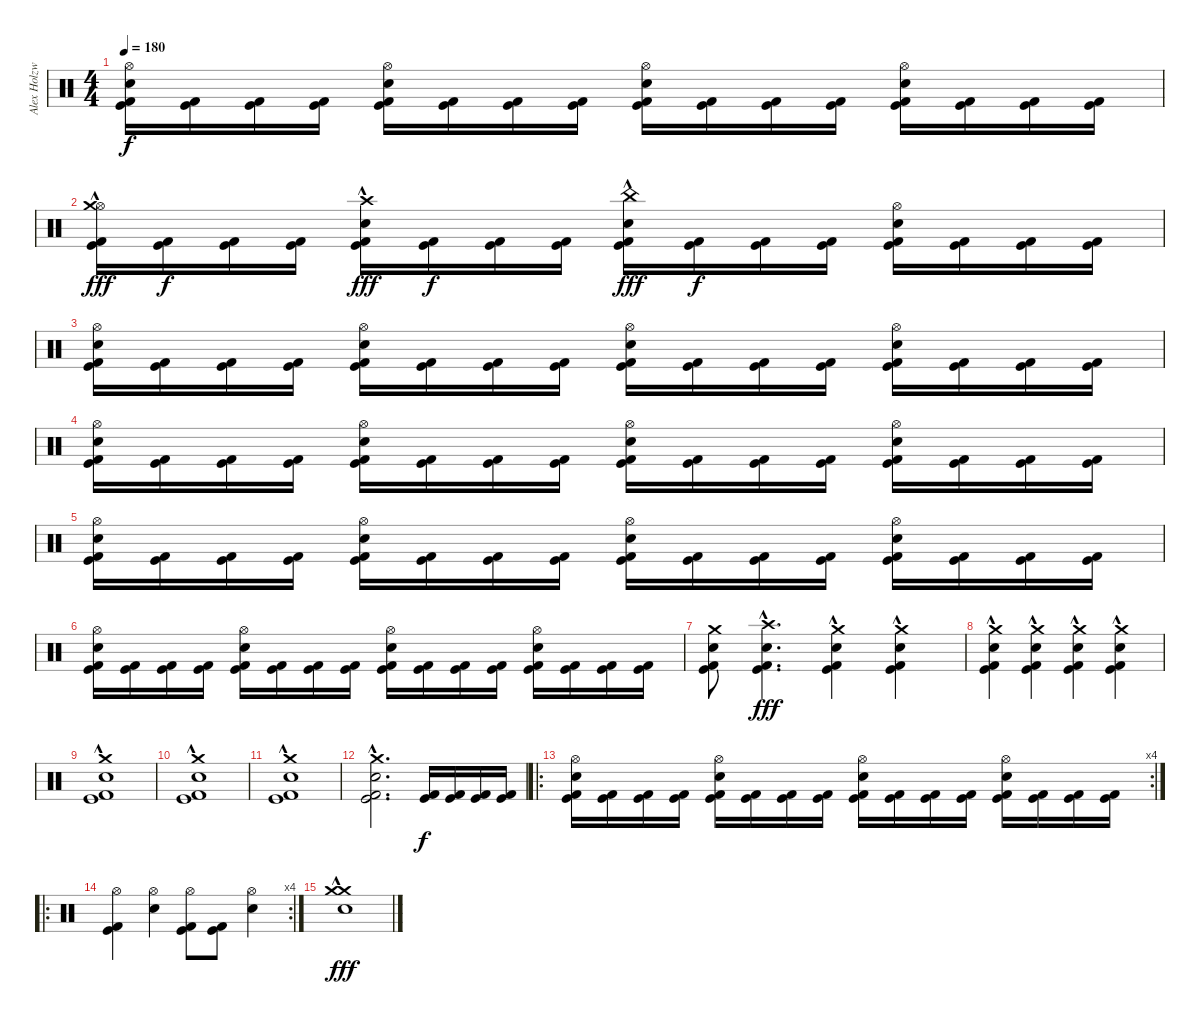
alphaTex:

\track ("Alex Holzwarth" "Alex Holzw") {instrument percussion}
\staff {score}
\articulation defaults
\ts (4 4)
\tempo 180
\clef neutral
\ks c
("Kick (hit) 2" "Kick (hit)" "Snare (hit) 2" "Hi-Hat (open)").16{dy f} ("Kick (hit) 2" "Kick (hit)").16 ("Kick (hit) 2" "Kick (hit)").16 ("Kick (hit) 2" "Kick (hit)").16 ("Kick (hit) 2" "Kick (hit)" "Hi-Hat (open)" "Snare (hit) 2").16 ("Kick (hit) 2" "Kick (hit)").16 ("Kick (hit) 2" "Kick (hit)").16 ("Kick (hit) 2" "Kick (hit)").16 ("Kick (hit) 2" "Kick (hit)" "Hi-Hat (open)" "Snare (hit) 2").16 ("Kick (hit) 2" "Kick (hit)").16 ("Kick (hit) 2" "Kick (hit)").16 ("Kick (hit) 2" "Kick (hit)").16 ("Kick (hit) 2" "Kick (hit)" "Hi-Hat (open)" "Snare (hit) 2").16 ("Kick (hit) 2" "Kick (hit)").16 ("Kick (hit) 2" "Kick (hit)").16 ("Kick (hit) 2" "Kick (hit)").16 |
("Kick (hit) 2" "Kick (hit)" "Hi-Hat (open)" "Crash medium (hit)"{hac}).16{dy fff} ("Kick (hit) 2" "Kick (hit)").16{dy f} ("Kick (hit) 2" "Kick (hit)").16 ("Kick (hit) 2" "Kick (hit)").16 ("Kick (hit) 2" "Kick (hit)" "Snare (hit) 2" "Crash high (hit)"{hac}).16{dy fff} ("Kick (hit) 2" "Kick (hit)").16{dy f} ("Kick (hit) 2" "Kick (hit)").16 ("Kick (hit) 2" "Kick (hit)").16 ("Kick (hit) 2" "Kick (hit)" "Snare (hit) 2" "China (hit)"{hac}).16{dy fff} ("Kick (hit) 2" "Kick (hit)").16{dy f} ("Kick (hit) 2" "Kick (hit)").16 ("Kick (hit) 2" "Kick (hit)").16 ("Kick (hit) 2" "Kick (hit)" "Hi-Hat (open)" "Snare (hit) 2").16 ("Kick (hit) 2" "Kick (hit)").16 ("Kick (hit) 2" "Kick (hit)").16 ("Kick (hit) 2" "Kick (hit)").16 |
("Kick (hit) 2" "Kick (hit)" "Snare (hit) 2" "Hi-Hat (open)").16 ("Kick (hit) 2" "Kick (hit)").16 ("Kick (hit) 2" "Kick (hit)").16 ("Kick (hit) 2" "Kick (hit)").16 ("Kick (hit) 2" "Kick (hit)" "Hi-Hat (open)" "Snare (hit) 2").16 ("Kick (hit) 2" "Kick (hit)").16 ("Kick (hit) 2" "Kick (hit)").16 ("Kick (hit) 2" "Kick (hit)").16 ("Kick (hit) 2" "Kick (hit)" "Hi-Hat (open)" "Snare (hit) 2").16 ("Kick (hit) 2" "Kick (hit)").16 ("Kick (hit) 2" "Kick (hit)").16 ("Kick (hit) 2" "Kick (hit)").16 ("Kick (hit) 2" "Kick (hit)" "Hi-Hat (open)" "Snare (hit) 2").16 ("Kick (hit) 2" "Kick (hit)").16 ("Kick (hit) 2" "Kick (hit)").16 ("Kick (hit) 2" "Kick (hit)").16 |
("Kick (hit) 2" "Kick (hit)" "Snare (hit) 2" "Hi-Hat (open)").16 ("Kick (hit) 2" "Kick (hit)").16 ("Kick (hit) 2" "Kick (hit)").16 ("Kick (hit) 2" "Kick (hit)").16 ("Kick (hit) 2" "Kick (hit)" "Hi-Hat (open)" "Snare (hit) 2").16 ("Kick (hit) 2" "Kick (hit)").16 ("Kick (hit) 2" "Kick (hit)").16 ("Kick (hit) 2" "Kick (hit)").16 ("Kick (hit) 2" "Kick (hit)" "Hi-Hat (open)" "Snare (hit) 2").16 ("Kick (hit) 2" "Kick (hit)").16 ("Kick (hit) 2" "Kick (hit)").16 ("Kick (hit) 2" "Kick (hit)").16 ("Kick (hit) 2" "Kick (hit)" "Hi-Hat (open)" "Snare (hit) 2").16 ("Kick (hit) 2" "Kick (hit)").16 ("Kick (hit) 2" "Kick (hit)").16 ("Kick (hit) 2" "Kick (hit)").16 |
("Kick (hit) 2" "Kick (hit)" "Snare (hit) 2" "Hi-Hat (open)").16 ("Kick (hit) 2" "Kick (hit)").16 ("Kick (hit) 2" "Kick (hit)").16 ("Kick (hit) 2" "Kick (hit)").16 ("Kick (hit) 2" "Kick (hit)" "Hi-Hat (open)" "Snare (hit) 2").16 ("Kick (hit) 2" "Kick (hit)").16 ("Kick (hit) 2" "Kick (hit)").16 ("Kick (hit) 2" "Kick (hit)").16 ("Kick (hit) 2" "Kick (hit)" "Hi-Hat (open)" "Snare (hit) 2").16 ("Kick (hit) 2" "Kick (hit)").16 ("Kick (hit) 2" "Kick (hit)").16 ("Kick (hit) 2" "Kick (hit)").16 ("Kick (hit) 2" "Kick (hit)" "Hi-Hat (open)" "Snare (hit) 2").16 ("Kick (hit) 2" "Kick (hit)").16 ("Kick (hit) 2" "Kick (hit)").16 ("Kick (hit) 2" "Kick (hit)").16 |
("Kick (hit) 2" "Kick (hit)" "Snare (hit) 2" "Hi-Hat (open)").16 ("Kick (hit) 2" "Kick (hit)").16 ("Kick (hit) 2" "Kick (hit)").16 ("Kick (hit) 2" "Kick (hit)").16 ("Kick (hit) 2" "Kick (hit)" "Hi-Hat (open)" "Snare (hit) 2").16 ("Kick (hit) 2" "Kick (hit)").16 ("Kick (hit) 2" "Kick (hit)").16 ("Kick (hit) 2" "Kick (hit)").16 ("Kick (hit) 2" "Kick (hit)" "Hi-Hat (open)" "Snare (hit) 2").16 ("Kick (hit) 2" "Kick (hit)").16 ("Kick (hit) 2" "Kick (hit)").16 ("Kick (hit) 2" "Kick (hit)").16 ("Kick (hit) 2" "Kick (hit)" "Hi-Hat (open)" "Snare (hit) 2").16 ("Kick (hit) 2" "Kick (hit)").16 ("Kick (hit) 2" "Kick (hit)").16 ("Kick (hit) 2" "Kick (hit)").16 |
("Kick (hit) 2" "Kick (hit)" "Snare (hit) 2" "Crash medium (hit)").8 ("Kick (hit)" "Kick (hit) 2" "Snare (hit) 2" "Crash high (hit)"{hac}).4{d dy fff} ("Kick (hit) 2" "Kick (hit)" "Snare (hit) 2" "Crash medium (hit)"{hac}).4 ("Kick (hit) 2" "Kick (hit)" "Snare (hit) 2" "Crash medium (hit)"{hac}).4 |
("Kick (hit) 2" "Kick (hit)" "Snare (hit) 2" "Crash medium (hit)"{hac}).4 ("Kick (hit) 2" "Kick (hit)" "Snare (hit) 2" "Crash medium (hit)"{hac}).4 ("Kick (hit) 2" "Kick (hit)" "Snare (hit) 2" "Crash medium (hit)"{hac}).4 ("Kick (hit) 2" "Kick (hit)" "Snare (hit) 2" "Crash medium (hit)"{hac}).4 |
("Kick (hit) 2" "Kick (hit)" "Snare (hit) 2" "Crash medium (hit)"{hac}).1 |
("Kick (hit) 2" "Kick (hit)" "Snare (hit) 2" "Crash medium (hit)"{hac}).1 |
("Kick (hit) 2" "Kick (hit)" "Snare (hit) 2" "Crash medium (hit)"{hac}).1 |
("Kick (hit) 2" "Kick (hit)" "Snare (hit) 2" "Crash medium (hit)"{hac}).2{d} ("Kick (hit)" "Kick (hit) 2").16{dy f} ("Kick (hit)" "Kick (hit) 2").16 ("Kick (hit)" "Kick (hit) 2").16 ("Kick (hit)" "Kick (hit) 2").16 |
\ro
\rc 4
("Kick (hit) 2" "Kick (hit)" "Snare (hit) 2" "Hi-Hat (open)").16 ("Kick (hit) 2" "Kick (hit)").16 ("Kick (hit) 2" "Kick (hit)").16 ("Kick (hit) 2" "Kick (hit)").16 ("Kick (hit) 2" "Kick (hit)" "Hi-Hat (open)" "Snare (hit) 2").16 ("Kick (hit) 2" "Kick (hit)").16 ("Kick (hit) 2" "Kick (hit)").16 ("Kick (hit) 2" "Kick (hit)").16 ("Kick (hit) 2" "Kick (hit)" "Hi-Hat (open)" "Snare (hit) 2").16 ("Kick (hit) 2" "Kick (hit)").16 ("Kick (hit) 2" "Kick (hit)").16 ("Kick (hit) 2" "Kick (hit)").16 ("Kick (hit) 2" "Kick (hit)" "Hi-Hat (open)" "Snare (hit) 2").16 ("Kick (hit) 2" "Kick (hit)").16 ("Kick (hit) 2" "Kick (hit)").16 ("Kick (hit) 2" "Kick (hit)").16 |
\ro
\rc 4
("Kick (hit)" "Kick (hit) 2" "Hi-Hat (open)").4{volume 16} ("Snare (hit) 2" "Hi-Hat (open)").4 ("Kick (hit)" "Kick (hit) 2" "Hi-Hat (open)").8 ("Kick (hit)" "Kick (hit) 2").8 ("Snare (hit) 2" "Hi-Hat (open)").4 |
("Snare (hit) 2" "Crash medium (hit)"{hac} "Crash medium (hit)"{hac}).1{dy fff}
